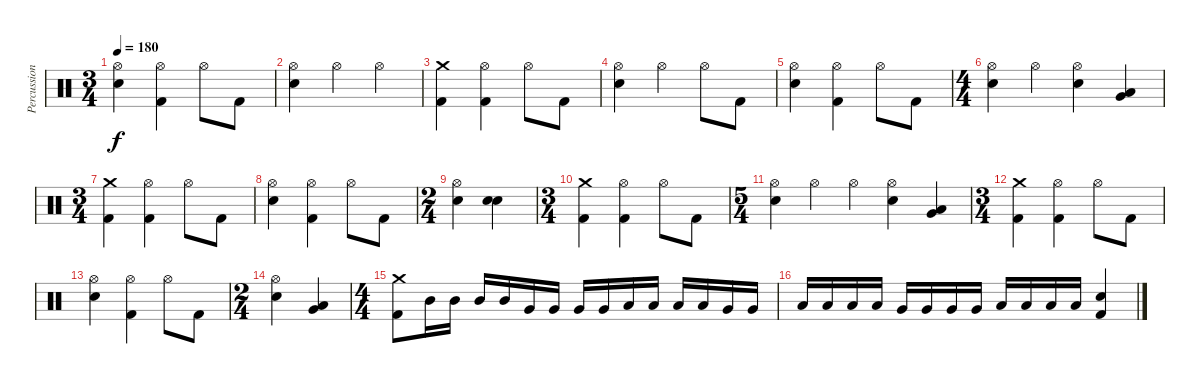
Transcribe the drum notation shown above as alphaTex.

\track ("Percussion" "Percussion") {instrument percussion}
\staff {score}
\articulation defaults
\ts (3 4)
\tempo 180
\clef neutral
\ks c
("Hi-Hat (open)" "Snare (hit) 2").4{dy f} ("Hi-Hat (open)" "Kick (hit) 2").4 "Hi-Hat (open)".8 "Kick (hit) 2".8 |
("Hi-Hat (open)" "Snare (hit) 2").4 "Hi-Hat (open)".4 "Hi-Hat (open)".4 |
("Crash medium (hit)" "Kick (hit) 2").4 ("Hi-Hat (open)" "Kick (hit) 2").4 "Hi-Hat (open)".8 "Kick (hit) 2".8 |
("Hi-Hat (open)" "Snare (hit) 2").4 "Hi-Hat (open)".4 "Hi-Hat (open)".8 "Kick (hit) 2".8 |
("Hi-Hat (open)" "Snare (hit) 2").4 ("Hi-Hat (open)" "Kick (hit) 2").4 "Hi-Hat (open)".8 "Kick (hit) 2".8 |
\ts (4 4)
("Hi-Hat (open)" "Snare (hit) 2").4 "Hi-Hat (open)".4 ("Hi-Hat (open)" "Snare (hit) 2").4 ("Very Low Tom (hit)" "Low Floor Tom (hit)").4 |
\ts (3 4)
("Crash medium (hit)" "Kick (hit) 2").4 ("Hi-Hat (open)" "Kick (hit) 2").4 "Hi-Hat (open)".8 "Kick (hit) 2".8 |
("Hi-Hat (open)" "Snare (hit) 2").4 ("Hi-Hat (open)" "Kick (hit) 2").4 "Hi-Hat (open)".8 "Kick (hit) 2".8 |
\ts (2 4)
("Hi-Hat (open)" "Snare (hit) 2").4 ("Snare (hit) 2" "Snare (hit) 2").4 |
\ts (3 4)
("Crash medium (hit)" "Kick (hit) 2").4 ("Hi-Hat (open)" "Kick (hit) 2").4 "Hi-Hat (open)".8 "Kick (hit) 2".8 |
\ts (5 4)
("Hi-Hat (open)" "Snare (hit) 2").4 "Hi-Hat (open)".4 "Hi-Hat (open)".4 ("Hi-Hat (open)" "Snare (hit) 2").4 ("Very Low Tom (hit)" "Low Floor Tom (hit)").4 |
\ts (3 4)
("Crash medium (hit)" "Kick (hit) 2").4 ("Hi-Hat (open)" "Kick (hit) 2").4 "Hi-Hat (open)".8 "Kick (hit) 2".8 |
("Hi-Hat (open)" "Snare (hit) 2").4 ("Hi-Hat (open)" "Kick (hit) 2").4 "Hi-Hat (open)".8 "Kick (hit) 2".8 |
\ts (2 4)
("Hi-Hat (open)" "Snare (hit) 2").4 ("Very Low Tom (hit)" "Low Floor Tom (hit)").4 |
\ts (4 4)
("Crash medium (hit)" "Kick (hit) 2").8 "Mid Tom (hit)".16 "Mid Tom (hit)".16 "Mid Tom (hit)".16 "Mid Tom (hit)".16 "Very Low Tom (hit)".16 "Very Low Tom (hit)".16 "Very Low Tom (hit)".16 "Very Low Tom (hit)".16 "Low Tom (hit)".16 "Low Tom (hit)".16 "Low Tom (hit)".16 "Low Tom (hit)".16 "Very Low Tom (hit)".16 "Very Low Tom (hit)".16 |
"Low Tom (hit)".16 "Low Tom (hit)".16 "Low Tom (hit)".16 "Low Tom (hit)".16 "Very Low Tom (hit)".16 "Very Low Tom (hit)".16 "Very Low Tom (hit)".16 "Very Low Tom (hit)".16 "Low Floor Tom (hit)".16 "Low Floor Tom (hit)".16 "Low Floor Tom (hit)".16 "Low Floor Tom (hit)".16 ("Snare (hit) 2" "Kick (hit) 2").4
